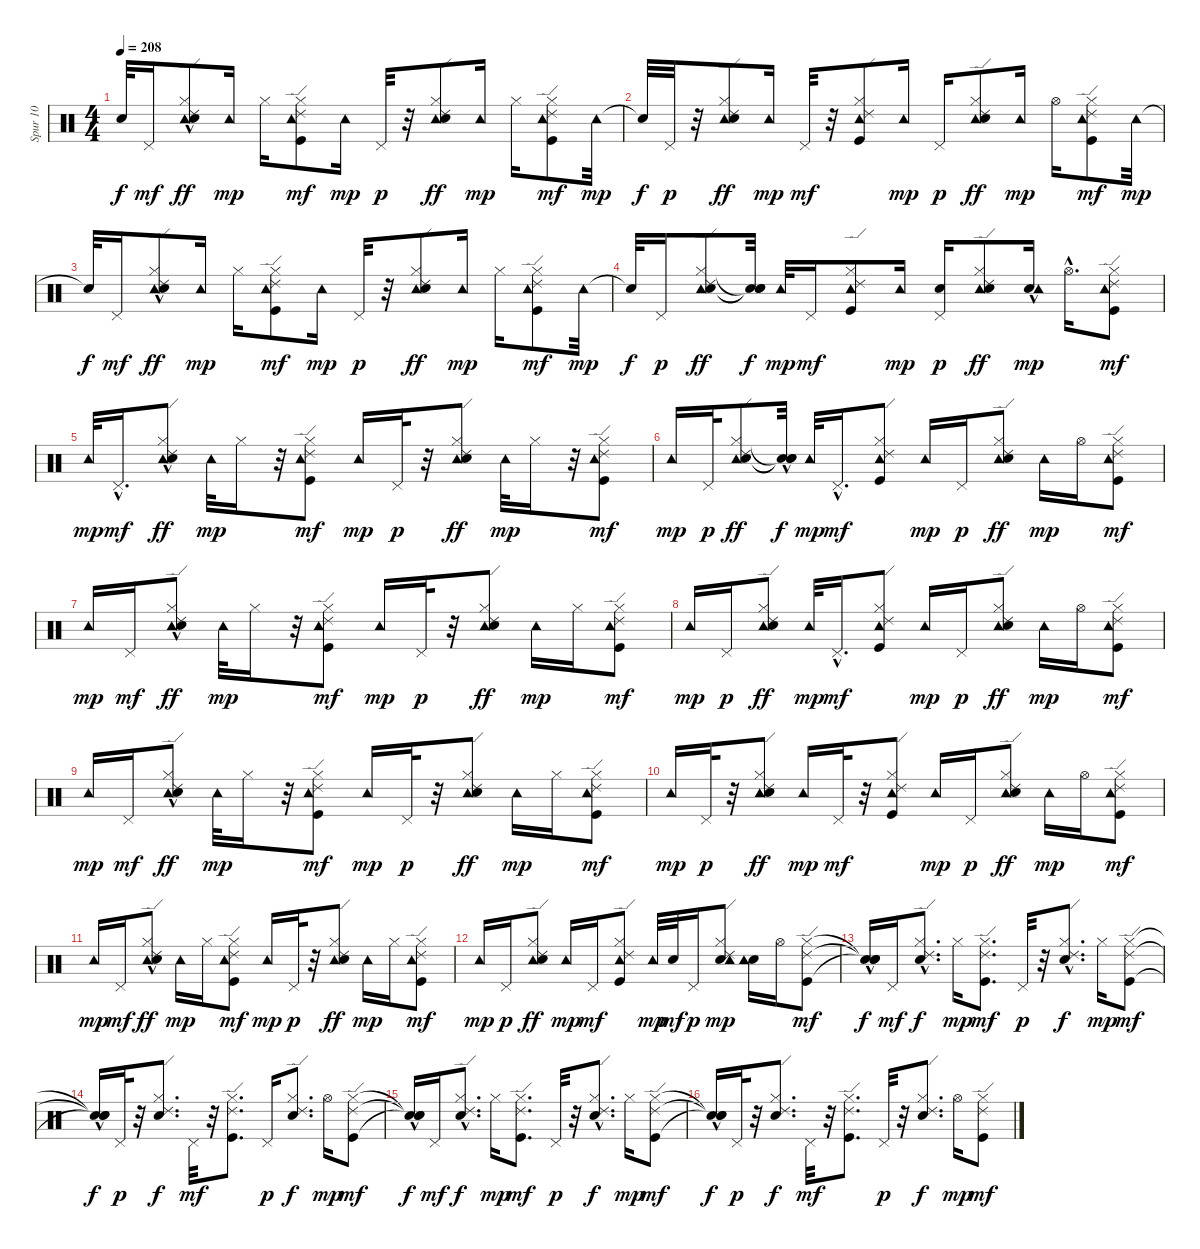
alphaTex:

\track ("Spur 10" "Spur 10") {instrument percussion}
\staff {score}
\articulation defaults
\ts (4 4)
\tempo 208
\clef neutral
\ks c "Snare (hit)"{t}.32{dy f} "Pedal Hi-Hat (hit)".16{dy mf}
("Tambourine (hit)" "Hi-Hat (closed)"{hac} "Electric Snare (hit)" "Ride (edge) 2").8{dy ff} "Tambourine (hit)".16{dy mp} "Hi-Hat (closed)".16 ("Tambourine (hit)" "Hi-Hat (closed)" "Kick (hit)" "Ride (edge) 2").8{dy mf} "Tambourine (hit)".16{dy mp} "Pedal Hi-Hat (hit)".32{dy p} r.32 ("Tambourine (hit)" "Hi-Hat (closed)" "Electric Snare (hit)" "Ride (edge) 2").8{dy ff} "Tambourine (hit)".16{dy mp} "Hi-Hat (closed)".16 ("Tambourine (hit)" "Hi-Hat (closed)" "Kick (hit)" "Ride (edge) 2").8{dy mf} "Tambourine (hit)".32{dy mp} |
"Snare (hit)"{t}.32{dy f} "Pedal Hi-Hat (hit)".32{dy p} r.32 ("Tambourine (hit)" "Hi-Hat (closed)" "Electric Snare (hit)" "Ride (edge) 2").8{dy ff} "Tambourine (hit)".16{dy mp} "Pedal Hi-Hat (hit)".32{dy mf} r.32 ("Tambourine (hit)" "Hi-Hat (closed)" "Kick (hit)" "Ride (edge) 2").8 "Tambourine (hit)".16{dy mp} "Pedal Hi-Hat (hit)".16{dy p} ("Tambourine (hit)" "Hi-Hat (closed)" "Electric Snare (hit)" "Ride (edge) 2").8{dy ff} "Tambourine (hit)".16{dy mp} "Hi-Hat (open)".16 ("Tambourine (hit)" "Hi-Hat (closed)" "Kick (hit)" "Ride (edge) 2").8{dy mf} "Tambourine (hit)".32{dy mp} |
"Snare (hit)"{t}.32{dy f} "Pedal Hi-Hat (hit)".16{dy mf} ("Tambourine (hit)" "Hi-Hat (closed)"{hac} "Electric Snare (hit)" "Ride (edge) 2").8{dy ff} "Tambourine (hit)".16{dy mp} "Hi-Hat (closed)".16 ("Tambourine (hit)" "Hi-Hat (closed)" "Kick (hit)" "Ride (edge) 2").8{dy mf} "Tambourine (hit)".16{dy mp} "Pedal Hi-Hat (hit)".32{dy p} r.32 ("Tambourine (hit)" "Hi-Hat (closed)" "Electric Snare (hit)" "Ride (edge) 2").8{dy ff} "Tambourine (hit)".16{dy mp} "Hi-Hat (closed)".16 ("Tambourine (hit)" "Hi-Hat (closed)" "Kick (hit)" "Ride (edge) 2").8{dy mf} "Tambourine (hit)".32{dy mp} |
"Snare (hit)"{t}.32{dy f} "Pedal Hi-Hat (hit)".16{dy p} ("Tambourine (hit)" "Hi-Hat (closed)" "Electric Snare (hit)" "Ride (edge) 2").8{dy ff} ("Snare (hit)"{t} "Snare (hit)"{t} "Snare (hit)"{t}).32{dy f} "Tambourine (hit)".32{dy mp} "Pedal Hi-Hat (hit)".16{dy mf} ("Tambourine (hit)" "Hi-Hat (closed)" "Kick (hit)" "Ride (edge) 2").8 "Tambourine (hit)".16{dy mp} ("Electric Snare (hit)" "Pedal Hi-Hat (hit)").16{dy p} ("Tambourine (hit)" "Hi-Hat (closed)" "Electric Snare (hit)" "Ride (edge) 2").8{dy ff} ("Electric Snare (hit)"{hac} "Tambourine (hit)").16{dy mp} "Hi-Hat (open)"{hac}.16{d} ("Tambourine (hit)" "Hi-Hat (closed)" "Kick (hit)" "Ride (edge) 2").8{dy mf} |
"Tambourine (hit)".32{dy mp} "Pedal Hi-Hat (hit)"{hac}.16{d dy mf} ("Tambourine (hit)" "Hi-Hat (closed)"{hac} "Electric Snare (hit)" "Ride (edge) 2").8{dy ff} "Tambourine (hit)".32{dy mp} "Hi-Hat (closed)".16 r.32 ("Tambourine (hit)" "Hi-Hat (closed)" "Kick (hit)" "Ride (edge) 2").8{dy mf} "Tambourine (hit)".16{dy mp} "Pedal Hi-Hat (hit)".32{dy p} r.32 ("Tambourine (hit)" "Hi-Hat (closed)" "Electric Snare (hit)" "Ride (edge) 2").8{dy ff} "Tambourine (hit)".32{dy mp} "Hi-Hat (closed)".16 r.32 ("Tambourine (hit)" "Hi-Hat (closed)" "Kick (hit)" "Ride (edge) 2").8{dy mf} |
"Tambourine (hit)".16{dy mp} "Pedal Hi-Hat (hit)".32{dy p} ("Tambourine (hit)" "Hi-Hat (closed)" "Electric Snare (hit)" "Ride (edge) 2").8{dy ff} ("Snare (hit)"{t} "Snare (hit)"{hac t} "Snare (hit)"{t}).32{dy f} "Tambourine (hit)".32{dy mp} "Pedal Hi-Hat (hit)"{hac}.16{d dy mf} ("Tambourine (hit)" "Hi-Hat (closed)" "Kick (hit)" "Ride (edge) 2").8 "Tambourine (hit)".16{dy mp} "Pedal Hi-Hat (hit)".16{dy p} ("Tambourine (hit)" "Hi-Hat (closed)" "Electric Snare (hit)" "Ride (edge) 2").8{dy ff} "Tambourine (hit)".16{dy mp} "Hi-Hat (open)".16 ("Tambourine (hit)" "Hi-Hat (closed)" "Kick (hit)" "Ride (edge) 2").8{dy mf} |
"Tambourine (hit)".16{dy mp} "Pedal Hi-Hat (hit)".16{dy mf} ("Tambourine (hit)" "Hi-Hat (closed)"{hac} "Electric Snare (hit)" "Ride (edge) 2").8{dy ff} "Tambourine (hit)".32{dy mp} "Hi-Hat (closed)".16 r.32 ("Tambourine (hit)" "Hi-Hat (closed)" "Kick (hit)" "Ride (edge) 2").8{dy mf} "Tambourine (hit)".16{dy mp} "Pedal Hi-Hat (hit)".32{dy p} r.32 ("Tambourine (hit)" "Hi-Hat (closed)" "Electric Snare (hit)" "Ride (edge) 2").8{dy ff} "Tambourine (hit)".16{dy mp} "Hi-Hat (closed)".16 ("Tambourine (hit)" "Hi-Hat (closed)" "Kick (hit)" "Ride (edge) 2").8{dy mf} |
"Tambourine (hit)".16{dy mp} "Pedal Hi-Hat (hit)".16{dy p} ("Tambourine (hit)" "Hi-Hat (closed)" "Electric Snare (hit)" "Ride (edge) 2").8{dy ff} "Tambourine (hit)".32{dy mp} "Pedal Hi-Hat (hit)"{hac}.16{d dy mf} ("Tambourine (hit)" "Hi-Hat (closed)" "Kick (hit)" "Ride (edge) 2").8 "Tambourine (hit)".16{dy mp} "Pedal Hi-Hat (hit)".16{dy p} ("Tambourine (hit)" "Hi-Hat (closed)" "Electric Snare (hit)" "Ride (edge) 2").8{dy ff} "Tambourine (hit)".16{dy mp} "Hi-Hat (open)".16 ("Tambourine (hit)" "Hi-Hat (closed)" "Kick (hit)" "Ride (edge) 2").8{dy mf} |
"Tambourine (hit)".16{dy mp} "Pedal Hi-Hat (hit)".16{dy mf} ("Tambourine (hit)" "Hi-Hat (closed)"{hac} "Electric Snare (hit)" "Ride (edge) 2").8{dy ff} "Tambourine (hit)".32{dy mp} "Hi-Hat (closed)".16 r.32 ("Tambourine (hit)" "Hi-Hat (closed)" "Kick (hit)" "Ride (edge) 2").8{dy mf} "Tambourine (hit)".16{dy mp} "Pedal Hi-Hat (hit)".32{dy p} r.32 ("Tambourine (hit)" "Hi-Hat (closed)" "Electric Snare (hit)" "Ride (edge) 2").8{dy ff} "Tambourine (hit)".16{dy mp} "Hi-Hat (closed)".16 ("Tambourine (hit)" "Hi-Hat (closed)" "Kick (hit)" "Ride (edge) 2").8{dy mf} |
"Tambourine (hit)".16{dy mp} "Pedal Hi-Hat (hit)".32{dy p} r.32 ("Tambourine (hit)" "Hi-Hat (closed)" "Electric Snare (hit)" "Ride (edge) 2").8{dy ff} "Tambourine (hit)".16{dy mp} "Pedal Hi-Hat (hit)".32{dy mf} r.32 ("Tambourine (hit)" "Hi-Hat (closed)" "Kick (hit)" "Ride (edge) 2").8 "Tambourine (hit)".16{dy mp} "Pedal Hi-Hat (hit)".16{dy p} ("Tambourine (hit)" "Hi-Hat (closed)" "Electric Snare (hit)" "Ride (edge) 2").8{dy ff} "Tambourine (hit)".16{dy mp} "Hi-Hat (open)".16 ("Tambourine (hit)" "Hi-Hat (closed)" "Kick (hit)" "Ride (edge) 2").8{dy mf} |
"Tambourine (hit)".16{dy mp} "Pedal Hi-Hat (hit)".16{dy mf} ("Tambourine (hit)" "Hi-Hat (closed)"{hac} "Electric Snare (hit)" "Ride (edge) 2").8{dy ff} "Tambourine (hit)".16{dy mp} "Hi-Hat (closed)".16 ("Tambourine (hit)" "Hi-Hat (closed)" "Kick (hit)" "Ride (edge) 2").8{dy mf} "Tambourine (hit)".16{dy mp} "Pedal Hi-Hat (hit)".32{dy p} r.32 ("Tambourine (hit)" "Hi-Hat (closed)" "Electric Snare (hit)" "Ride (edge) 2").8{dy ff} "Tambourine (hit)".16{dy mp} "Hi-Hat (closed)".16 ("Tambourine (hit)" "Hi-Hat (closed)" "Kick (hit)" "Ride (edge) 2").8{dy mf} |
"Tambourine (hit)".16{dy mp} "Pedal Hi-Hat (hit)".16{dy p} ("Tambourine (hit)" "Hi-Hat (closed)" "Electric Snare (hit)" "Ride (edge) 2").8{dy ff} "Tambourine (hit)".16{dy mp} "Pedal Hi-Hat (hit)".16{dy mf} ("Tambourine (hit)" "Hi-Hat (closed)" "Kick (hit)" "Ride (edge) 2").8 "Tambourine (hit)".32{dy mp} "Electric Snare (hit)".32{dy mf} "Pedal Hi-Hat (hit)".16{dy p} ("Electric Snare (hit)" "Tambourine (hit)" "Hi-Hat (closed)" "Ride (edge) 2").8{dy mp} ("Electric Snare (hit)" "Tambourine (hit)").16 "Hi-Hat (open)".16 ("Hi-Hat (closed)" "Kick (hit)" "Ride (edge) 2").8{dy mf} |
("Snare (hit)"{t} "Snare (hit)"{hac t} "Snare (hit)"{t}).16{dy f} "Pedal Hi-Hat (hit)".16{dy mf} ("Snare (hit) 2" "Hi-Hat (closed)"{hac} "Ride (edge) 2").8{d dy f} "Hi-Hat (closed)".16{dy mp} ("Hi-Hat (closed)" "Kick (hit)" "Ride (edge) 2").8{d dy mf} "Pedal Hi-Hat (hit)".32{dy p} r.32 ("Snare (hit) 2" "Hi-Hat (closed)"{hac} "Ride (edge) 2").8{d dy f} "Hi-Hat (closed)".16{dy mp} ("Hi-Hat (closed)" "Kick (hit)" "Ride (edge) 2").8{dy mf} |
("Snare (hit)"{t} "Snare (hit)"{hac t} "Snare (hit)"{t}).16{dy f} "Pedal Hi-Hat (hit)".32{dy p} r.32 ("Snare (hit) 2" "Hi-Hat (closed)" "Ride (edge) 2").8{d dy f} "Pedal Hi-Hat (hit)".32{dy mf} r.32 ("Hi-Hat (closed)" "Kick (hit)" "Ride (edge) 2").8{d} "Pedal Hi-Hat (hit)".16{dy p} ("Snare (hit) 2" "Hi-Hat (closed)" "Ride (edge) 2").8{d dy f} "Hi-Hat (open)".16{dy mp} ("Hi-Hat (closed)" "Kick (hit)" "Ride (edge) 2").8{dy mf} |
("Snare (hit)"{t} "Snare (hit)"{hac t} "Snare (hit)"{t}).16{dy f} "Pedal Hi-Hat (hit)".16{dy mf} ("Snare (hit) 2" "Hi-Hat (closed)"{hac} "Ride (edge) 2").8{d dy f} "Hi-Hat (closed)".16{dy mp} ("Hi-Hat (closed)" "Kick (hit)" "Ride (edge) 2").8{d dy mf} "Pedal Hi-Hat (hit)".32{dy p} r.32 ("Snare (hit) 2" "Hi-Hat (closed)"{hac} "Ride (edge) 2").8{d dy f} "Hi-Hat (closed)".16{dy mp} ("Hi-Hat (closed)" "Kick (hit)" "Ride (edge) 2").8{dy mf} |
("Snare (hit)"{t} "Snare (hit)"{hac t} "Snare (hit)"{t}).16{dy f} "Pedal Hi-Hat (hit)".32{dy p} r.32 ("Snare (hit) 2" "Hi-Hat (closed)" "Ride (edge) 2").8{d dy f} "Pedal Hi-Hat (hit)".32{dy mf} r.32 ("Hi-Hat (closed)" "Kick (hit)" "Ride (edge) 2").8{d} "Pedal Hi-Hat (hit)".32{dy p} r.32 ("Snare (hit) 2" "Hi-Hat (closed)" "Ride (edge) 2").8{d dy f} "Hi-Hat (open)".16{dy mp} ("Hi-Hat (closed)" "Kick (hit)" "Ride (edge) 2").8{dy mf}
